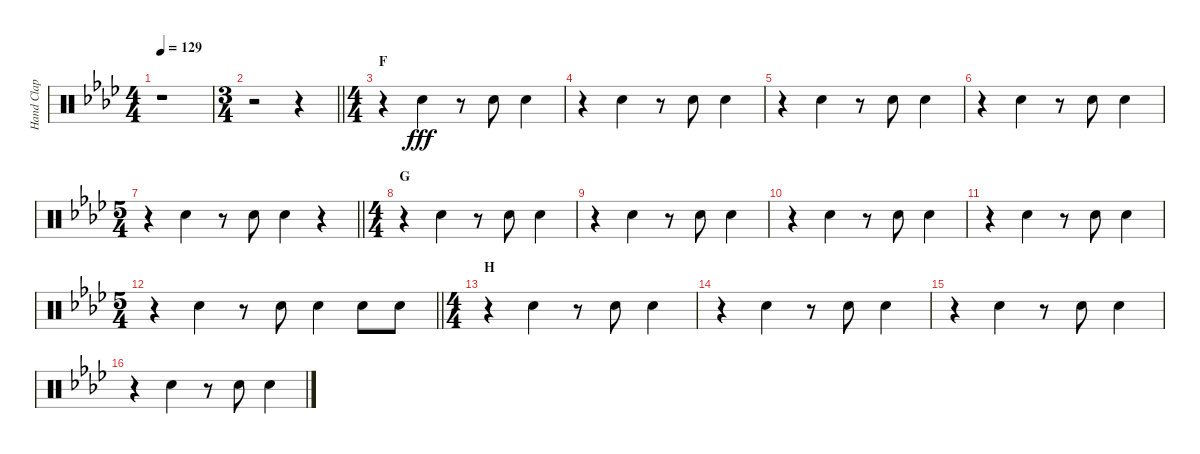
\track ("Hand Clap" "Hand Clap") {instrument percussion}
\staff {score}
\articulation defaults
\ts (4 4)
\tempo 129
\clef neutral
\ks ab
r.1{dy fff} |
\ts (3 4)
\barLineRight lightlight
r.2 r.4 |
\ts (4 4)
\section ("" "F")
r.4 "Hand Clap (hit)".4 r.8 "Hand Clap (hit)".8 "Hand Clap (hit)".4 |
r.4 "Hand Clap (hit)".4 r.8 "Hand Clap (hit)".8 "Hand Clap (hit)".4 |
r.4 "Hand Clap (hit)".4 r.8 "Hand Clap (hit)".8 "Hand Clap (hit)".4 |
r.4 "Hand Clap (hit)".4 r.8 "Hand Clap (hit)".8 "Hand Clap (hit)".4 |
\ts (5 4)
\barLineRight lightlight
r.4 "Hand Clap (hit)".4 r.8 "Hand Clap (hit)".8 "Hand Clap (hit)".4 r.4 |
\ts (4 4)
\section ("" "G")
r.4 "Hand Clap (hit)".4 r.8 "Hand Clap (hit)".8 "Hand Clap (hit)".4 |
r.4 "Hand Clap (hit)".4 r.8 "Hand Clap (hit)".8 "Hand Clap (hit)".4 |
r.4 "Hand Clap (hit)".4 r.8 "Hand Clap (hit)".8 "Hand Clap (hit)".4 |
r.4 "Hand Clap (hit)".4 r.8 "Hand Clap (hit)".8 "Hand Clap (hit)".4 |
\ts (5 4)
\barLineRight lightlight
r.4 "Hand Clap (hit)".4 r.8 "Hand Clap (hit)".8 "Hand Clap (hit)".4 "Hand Clap (hit)".8 "Hand Clap (hit)".8 |
\ts (4 4)
\section ("" "H")
r.4 "Hand Clap (hit)".4 r.8 "Hand Clap (hit)".8 "Hand Clap (hit)".4 |
r.4 "Hand Clap (hit)".4 r.8 "Hand Clap (hit)".8 "Hand Clap (hit)".4 |
r.4 "Hand Clap (hit)".4 r.8 "Hand Clap (hit)".8 "Hand Clap (hit)".4 |
r.4 "Hand Clap (hit)".4 r.8 "Hand Clap (hit)".8 "Hand Clap (hit)".4
